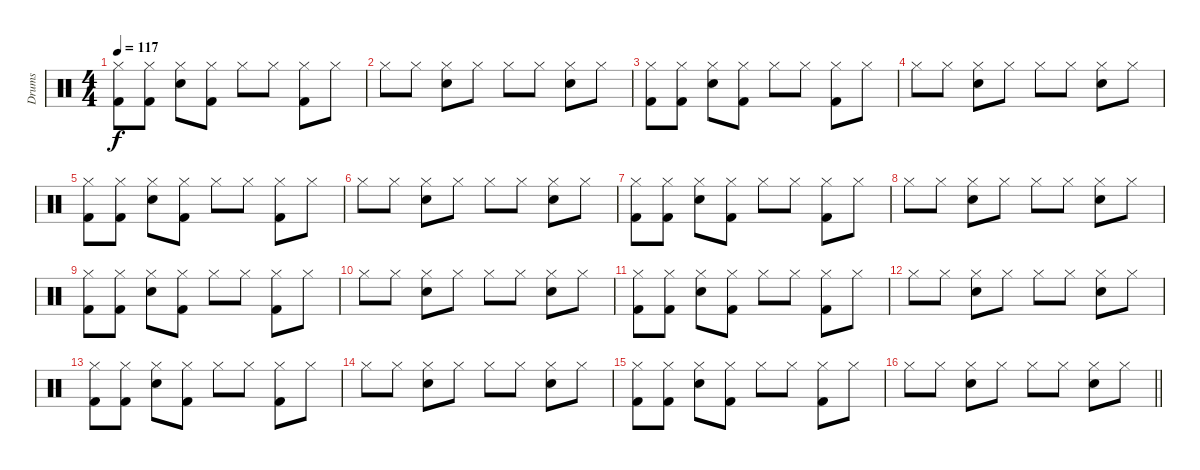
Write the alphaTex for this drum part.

\track ("Drums" "Drums") {instrument percussion}
\staff {score}
\articulation defaults
\ts (4 4)
\tempo 117
\clef neutral
\ks c
("Hi-Hat (closed)" "Kick (hit) 2").8{dy f} ("Hi-Hat (closed)" "Kick (hit) 2").8 ("Hi-Hat (closed)" "Snare (hit) 2").8 ("Hi-Hat (closed)" "Kick (hit) 2").8 "Hi-Hat (closed)".8 "Hi-Hat (closed)".8 ("Hi-Hat (closed)" "Kick (hit) 2").8 "Hi-Hat (closed)".8 |
"Hi-Hat (closed)".8 "Hi-Hat (closed)".8 ("Hi-Hat (closed)" "Snare (hit) 2").8 "Hi-Hat (closed)".8 "Hi-Hat (closed)".8 "Hi-Hat (closed)".8 ("Hi-Hat (closed)" "Snare (hit) 2").8 "Hi-Hat (closed)".8 |
("Hi-Hat (closed)" "Kick (hit) 2").8 ("Hi-Hat (closed)" "Kick (hit) 2").8 ("Hi-Hat (closed)" "Snare (hit) 2").8 ("Hi-Hat (closed)" "Kick (hit) 2").8 "Hi-Hat (closed)".8 "Hi-Hat (closed)".8 ("Hi-Hat (closed)" "Kick (hit) 2").8 "Hi-Hat (closed)".8 |
"Hi-Hat (closed)".8 "Hi-Hat (closed)".8 ("Hi-Hat (closed)" "Snare (hit) 2").8 "Hi-Hat (closed)".8 "Hi-Hat (closed)".8 "Hi-Hat (closed)".8 ("Hi-Hat (closed)" "Snare (hit) 2").8 "Hi-Hat (closed)".8 |
("Hi-Hat (closed)" "Kick (hit) 2").8 ("Hi-Hat (closed)" "Kick (hit) 2").8 ("Hi-Hat (closed)" "Snare (hit) 2").8 ("Hi-Hat (closed)" "Kick (hit) 2").8 "Hi-Hat (closed)".8 "Hi-Hat (closed)".8 ("Hi-Hat (closed)" "Kick (hit) 2").8 "Hi-Hat (closed)".8 |
"Hi-Hat (closed)".8 "Hi-Hat (closed)".8 ("Hi-Hat (closed)" "Snare (hit) 2").8 "Hi-Hat (closed)".8 "Hi-Hat (closed)".8 "Hi-Hat (closed)".8 ("Hi-Hat (closed)" "Snare (hit) 2").8 "Hi-Hat (closed)".8 |
("Hi-Hat (closed)" "Kick (hit) 2").8 ("Hi-Hat (closed)" "Kick (hit) 2").8 ("Hi-Hat (closed)" "Snare (hit) 2").8 ("Hi-Hat (closed)" "Kick (hit) 2").8 "Hi-Hat (closed)".8 "Hi-Hat (closed)".8 ("Hi-Hat (closed)" "Kick (hit) 2").8 "Hi-Hat (closed)".8 |
"Hi-Hat (closed)".8 "Hi-Hat (closed)".8 ("Hi-Hat (closed)" "Snare (hit) 2").8 "Hi-Hat (closed)".8 "Hi-Hat (closed)".8 "Hi-Hat (closed)".8 ("Hi-Hat (closed)" "Snare (hit) 2").8 "Hi-Hat (closed)".8 |
("Hi-Hat (closed)" "Kick (hit) 2").8 ("Hi-Hat (closed)" "Kick (hit) 2").8 ("Hi-Hat (closed)" "Snare (hit) 2").8 ("Hi-Hat (closed)" "Kick (hit) 2").8 "Hi-Hat (closed)".8 "Hi-Hat (closed)".8 ("Hi-Hat (closed)" "Kick (hit) 2").8 "Hi-Hat (closed)".8 |
"Hi-Hat (closed)".8 "Hi-Hat (closed)".8 ("Hi-Hat (closed)" "Snare (hit) 2").8 "Hi-Hat (closed)".8 "Hi-Hat (closed)".8 "Hi-Hat (closed)".8 ("Hi-Hat (closed)" "Snare (hit) 2").8 "Hi-Hat (closed)".8 |
("Hi-Hat (closed)" "Kick (hit) 2").8 ("Hi-Hat (closed)" "Kick (hit) 2").8 ("Hi-Hat (closed)" "Snare (hit) 2").8 ("Hi-Hat (closed)" "Kick (hit) 2").8 "Hi-Hat (closed)".8 "Hi-Hat (closed)".8 ("Hi-Hat (closed)" "Kick (hit) 2").8 "Hi-Hat (closed)".8 |
"Hi-Hat (closed)".8 "Hi-Hat (closed)".8 ("Hi-Hat (closed)" "Snare (hit) 2").8 "Hi-Hat (closed)".8 "Hi-Hat (closed)".8 "Hi-Hat (closed)".8 ("Hi-Hat (closed)" "Snare (hit) 2").8 "Hi-Hat (closed)".8 |
("Hi-Hat (closed)" "Kick (hit) 2").8 ("Hi-Hat (closed)" "Kick (hit) 2").8 ("Hi-Hat (closed)" "Snare (hit) 2").8 ("Hi-Hat (closed)" "Kick (hit) 2").8 "Hi-Hat (closed)".8 "Hi-Hat (closed)".8 ("Hi-Hat (closed)" "Kick (hit) 2").8 "Hi-Hat (closed)".8 |
"Hi-Hat (closed)".8 "Hi-Hat (closed)".8 ("Hi-Hat (closed)" "Snare (hit) 2").8 "Hi-Hat (closed)".8 "Hi-Hat (closed)".8 "Hi-Hat (closed)".8 ("Hi-Hat (closed)" "Snare (hit) 2").8 "Hi-Hat (closed)".8 |
("Hi-Hat (closed)" "Kick (hit) 2").8 ("Hi-Hat (closed)" "Kick (hit) 2").8 ("Hi-Hat (closed)" "Snare (hit) 2").8 ("Hi-Hat (closed)" "Kick (hit) 2").8 "Hi-Hat (closed)".8 "Hi-Hat (closed)".8 ("Hi-Hat (closed)" "Kick (hit) 2").8 "Hi-Hat (closed)".8 |
\barLineRight lightlight "Hi-Hat (closed)".8 "Hi-Hat (closed)".8
("Hi-Hat (closed)" "Snare (hit) 2").8 "Hi-Hat (closed)".8 "Hi-Hat (closed)".8 "Hi-Hat (closed)".8 ("Hi-Hat (closed)" "Snare (hit) 2").8 "Hi-Hat (closed)".8
